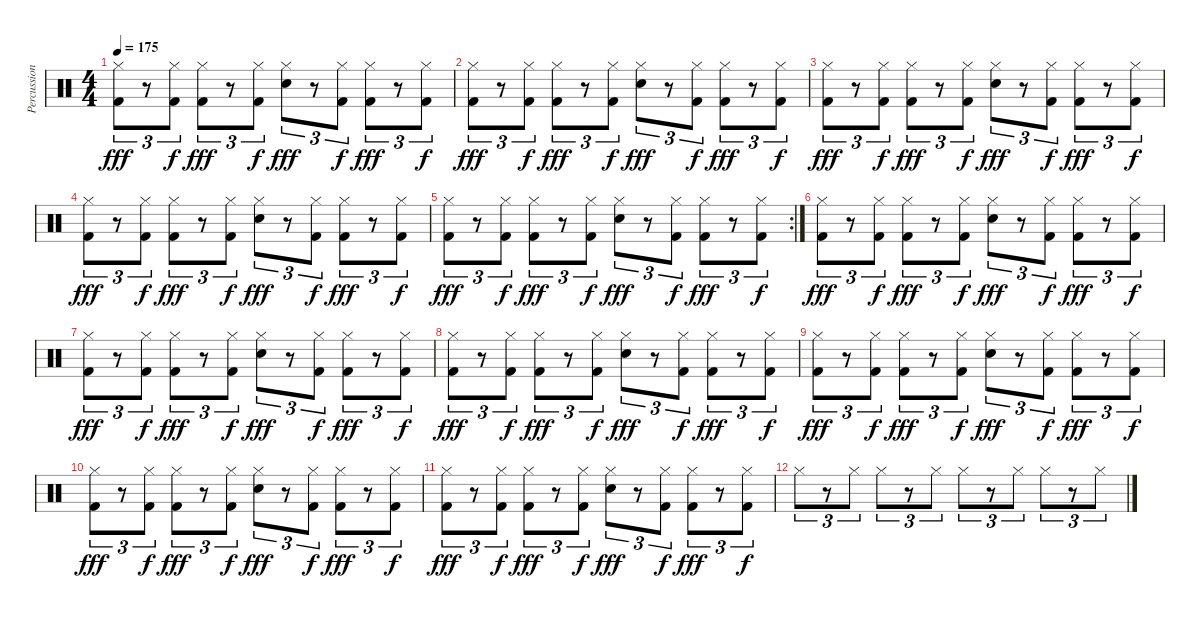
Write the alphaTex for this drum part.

\track ("Percussion" "Percussion") {instrument percussion}
\staff {score}
\articulation defaults
\ts (4 4)
\tempo 175
\clef neutral
\ks c
("Kick (hit) 2" "Hi-Hat (closed)").8{tu (3 2) dy fff} r.8{tu (3 2)} ("Kick (hit) 2" "Hi-Hat (closed)").8{tu (3 2) dy f} ("Kick (hit) 2" "Hi-Hat (closed)").8{tu (3 2) dy fff} r.8{tu (3 2)} ("Kick (hit) 2" "Hi-Hat (closed)").8{tu (3 2) dy f} ("Electric Snare (hit)" "Hi-Hat (closed)").8{tu (3 2) dy fff} r.8{tu (3 2)} ("Kick (hit) 2" "Hi-Hat (closed)").8{tu (3 2) dy f} ("Kick (hit) 2" "Hi-Hat (closed)").8{tu (3 2) dy fff} r.8{tu (3 2)} ("Kick (hit) 2" "Hi-Hat (closed)").8{tu (3 2) dy f} |
("Kick (hit) 2" "Hi-Hat (closed)").8{tu (3 2) dy fff} r.8{tu (3 2)} ("Kick (hit) 2" "Hi-Hat (closed)").8{tu (3 2) dy f} ("Kick (hit) 2" "Hi-Hat (closed)").8{tu (3 2) dy fff} r.8{tu (3 2)} ("Kick (hit) 2" "Hi-Hat (closed)").8{tu (3 2) dy f} ("Electric Snare (hit)" "Hi-Hat (closed)").8{tu (3 2) dy fff} r.8{tu (3 2)} ("Kick (hit) 2" "Hi-Hat (closed)").8{tu (3 2) dy f} ("Kick (hit) 2" "Hi-Hat (closed)").8{tu (3 2) dy fff} r.8{tu (3 2)} ("Kick (hit) 2" "Hi-Hat (closed)").8{tu (3 2) dy f} |
("Kick (hit) 2" "Hi-Hat (closed)").8{tu (3 2) dy fff} r.8{tu (3 2)} ("Kick (hit) 2" "Hi-Hat (closed)").8{tu (3 2) dy f} ("Kick (hit) 2" "Hi-Hat (closed)").8{tu (3 2) dy fff} r.8{tu (3 2)} ("Kick (hit) 2" "Hi-Hat (closed)").8{tu (3 2) dy f} ("Electric Snare (hit)" "Hi-Hat (closed)").8{tu (3 2) dy fff} r.8{tu (3 2)} ("Kick (hit) 2" "Hi-Hat (closed)").8{tu (3 2) dy f} ("Kick (hit) 2" "Hi-Hat (closed)").8{tu (3 2) dy fff} r.8{tu (3 2)} ("Kick (hit) 2" "Hi-Hat (closed)").8{tu (3 2) dy f} |
("Kick (hit) 2" "Hi-Hat (closed)").8{tu (3 2) dy fff} r.8{tu (3 2)} ("Kick (hit) 2" "Hi-Hat (closed)").8{tu (3 2) dy f} ("Kick (hit) 2" "Hi-Hat (closed)").8{tu (3 2) dy fff} r.8{tu (3 2)} ("Kick (hit) 2" "Hi-Hat (closed)").8{tu (3 2) dy f} ("Electric Snare (hit)" "Hi-Hat (closed)").8{tu (3 2) dy fff} r.8{tu (3 2)} ("Kick (hit) 2" "Hi-Hat (closed)").8{tu (3 2) dy f} ("Kick (hit) 2" "Hi-Hat (closed)").8{tu (3 2) dy fff} r.8{tu (3 2)} ("Kick (hit) 2" "Hi-Hat (closed)").8{tu (3 2) dy f} |
\rc 2
("Kick (hit) 2" "Hi-Hat (closed)").8{tu (3 2) dy fff} r.8{tu (3 2)} ("Kick (hit) 2" "Hi-Hat (closed)").8{tu (3 2) dy f} ("Kick (hit) 2" "Hi-Hat (closed)").8{tu (3 2) dy fff} r.8{tu (3 2)} ("Kick (hit) 2" "Hi-Hat (closed)").8{tu (3 2) dy f} ("Electric Snare (hit)" "Hi-Hat (closed)").8{tu (3 2) dy fff} r.8{tu (3 2)} ("Kick (hit) 2" "Hi-Hat (closed)").8{tu (3 2) dy f} ("Kick (hit) 2" "Hi-Hat (closed)").8{tu (3 2) dy fff} r.8{tu (3 2)} ("Kick (hit) 2" "Hi-Hat (closed)").8{tu (3 2) dy f} |
("Kick (hit) 2" "Hi-Hat (closed)").8{tu (3 2) dy fff} r.8{tu (3 2)} ("Kick (hit) 2" "Hi-Hat (closed)").8{tu (3 2) dy f} ("Kick (hit) 2" "Hi-Hat (closed)").8{tu (3 2) dy fff} r.8{tu (3 2)} ("Kick (hit) 2" "Hi-Hat (closed)").8{tu (3 2) dy f} ("Electric Snare (hit)" "Hi-Hat (closed)").8{tu (3 2) dy fff} r.8{tu (3 2)} ("Kick (hit) 2" "Hi-Hat (closed)").8{tu (3 2) dy f} ("Kick (hit) 2" "Hi-Hat (closed)").8{tu (3 2) dy fff} r.8{tu (3 2)} ("Kick (hit) 2" "Hi-Hat (closed)").8{tu (3 2) dy f} |
("Kick (hit) 2" "Hi-Hat (closed)").8{tu (3 2) dy fff} r.8{tu (3 2)} ("Kick (hit) 2" "Hi-Hat (closed)").8{tu (3 2) dy f} ("Kick (hit) 2" "Hi-Hat (closed)").8{tu (3 2) dy fff} r.8{tu (3 2)} ("Kick (hit) 2" "Hi-Hat (closed)").8{tu (3 2) dy f} ("Electric Snare (hit)" "Hi-Hat (closed)").8{tu (3 2) dy fff} r.8{tu (3 2)} ("Kick (hit) 2" "Hi-Hat (closed)").8{tu (3 2) dy f} ("Kick (hit) 2" "Hi-Hat (closed)").8{tu (3 2) dy fff} r.8{tu (3 2)} ("Kick (hit) 2" "Hi-Hat (closed)").8{tu (3 2) dy f} |
("Kick (hit) 2" "Hi-Hat (closed)").8{tu (3 2) dy fff} r.8{tu (3 2)} ("Kick (hit) 2" "Hi-Hat (closed)").8{tu (3 2) dy f} ("Kick (hit) 2" "Hi-Hat (closed)").8{tu (3 2) dy fff} r.8{tu (3 2)} ("Kick (hit) 2" "Hi-Hat (closed)").8{tu (3 2) dy f} ("Electric Snare (hit)" "Hi-Hat (closed)").8{tu (3 2) dy fff} r.8{tu (3 2)} ("Kick (hit) 2" "Hi-Hat (closed)").8{tu (3 2) dy f} ("Kick (hit) 2" "Hi-Hat (closed)").8{tu (3 2) dy fff} r.8{tu (3 2)} ("Kick (hit) 2" "Hi-Hat (closed)").8{tu (3 2) dy f} |
("Kick (hit) 2" "Hi-Hat (closed)").8{tu (3 2) dy fff} r.8{tu (3 2)} ("Kick (hit) 2" "Hi-Hat (closed)").8{tu (3 2) dy f} ("Kick (hit) 2" "Hi-Hat (closed)").8{tu (3 2) dy fff} r.8{tu (3 2)} ("Kick (hit) 2" "Hi-Hat (closed)").8{tu (3 2) dy f} ("Electric Snare (hit)" "Hi-Hat (closed)").8{tu (3 2) dy fff} r.8{tu (3 2)} ("Kick (hit) 2" "Hi-Hat (closed)").8{tu (3 2) dy f} ("Kick (hit) 2" "Hi-Hat (closed)").8{tu (3 2) dy fff} r.8{tu (3 2)} ("Kick (hit) 2" "Hi-Hat (closed)").8{tu (3 2) dy f} |
("Kick (hit) 2" "Hi-Hat (closed)").8{tu (3 2) dy fff} r.8{tu (3 2)} ("Kick (hit) 2" "Hi-Hat (closed)").8{tu (3 2) dy f} ("Kick (hit) 2" "Hi-Hat (closed)").8{tu (3 2) dy fff} r.8{tu (3 2)} ("Kick (hit) 2" "Hi-Hat (closed)").8{tu (3 2) dy f} ("Electric Snare (hit)" "Hi-Hat (closed)").8{tu (3 2) dy fff} r.8{tu (3 2)} ("Kick (hit) 2" "Hi-Hat (closed)").8{tu (3 2) dy f} ("Kick (hit) 2" "Hi-Hat (closed)").8{tu (3 2) dy fff} r.8{tu (3 2)} ("Kick (hit) 2" "Hi-Hat (closed)").8{tu (3 2) dy f} |
("Kick (hit) 2" "Hi-Hat (closed)").8{tu (3 2) dy fff} r.8{tu (3 2)} ("Kick (hit) 2" "Hi-Hat (closed)").8{tu (3 2) dy f} ("Kick (hit) 2" "Hi-Hat (closed)").8{tu (3 2) dy fff} r.8{tu (3 2)} ("Kick (hit) 2" "Hi-Hat (closed)").8{tu (3 2) dy f} ("Electric Snare (hit)" "Hi-Hat (closed)").8{tu (3 2) dy fff} r.8{tu (3 2)} ("Kick (hit) 2" "Hi-Hat (closed)").8{tu (3 2) dy f} ("Kick (hit) 2" "Hi-Hat (closed)").8{tu (3 2) dy fff} r.8{tu (3 2)} ("Kick (hit) 2" "Hi-Hat (closed)").8{tu (3 2) dy f} |
"Hi-Hat (closed)".8{tu (3 2)} r.8{tu (3 2)} "Hi-Hat (closed)".8{tu (3 2)} "Hi-Hat (closed)".8{tu (3 2)} r.8{tu (3 2)} "Hi-Hat (closed)".8{tu (3 2)} "Hi-Hat (closed)".8{tu (3 2)} r.8{tu (3 2)} "Hi-Hat (closed)".8{tu (3 2)} "Hi-Hat (closed)".8{tu (3 2)} r.8{tu (3 2)} "Hi-Hat (closed)".8{tu (3 2)}
